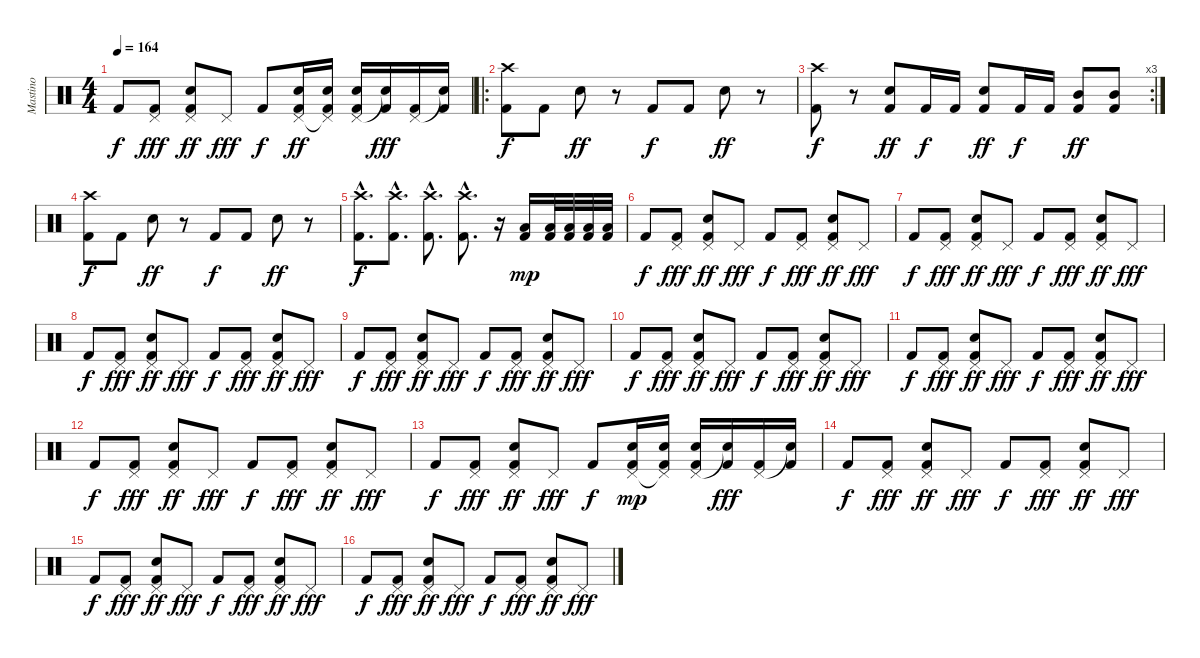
\track ("Mastino" "Mastino") {instrument percussion}
\staff {score}
\articulation defaults
\ts (4 4)
\tempo 164
\clef neutral
\ks c "Kick (hit) 2".8{dy f}
("Pedal Hi-Hat (hit)" "Kick (hit) 2").8{dy fff} ("Pedal Hi-Hat (hit)" "Electric Snare (hit)" "Kick (hit) 2").8{dy ff} "Pedal Hi-Hat (hit)".8{dy fff} "Kick (hit) 2".8{dy f} ("Pedal Hi-Hat (hit)" "Electric Snare (hit)" "Kick (hit) 2").16{dy ff} ("Pedal Hi-Hat (hit)"{t} "Electric Snare (hit)" "Kick (hit) 2").16 ("Pedal Hi-Hat (hit)" "Electric Snare (hit)" "Kick (hit) 2").16 ("Snare (hit)"{t} "Kick (hit) 2").16{dy fff} ("Pedal Hi-Hat (hit)" "Kick (hit) 2").16 ("Snare (hit)"{t} "Kick (hit) 2").16 |
\ro
("Crash high (hit)" "Kick (hit) 2").8{dy f} "Kick (hit) 2".8 "Electric Snare (hit)".8{dy ff} r.8 "Kick (hit) 2".8{dy f} "Kick (hit) 2".8 "Electric Snare (hit)".8{dy ff} r.8 |
\rc 3
("Crash high (hit)" "Kick (hit) 2").8{dy f} r.8 ("Electric Snare (hit)" "Kick (hit) 2").8{dy ff} "Kick (hit) 2".16{dy f} "Kick (hit) 2".16 ("Electric Snare (hit)" "Kick (hit) 2").8{dy ff} "Kick (hit) 2".16{dy f} "Kick (hit) 2".16 ("Mid Tom (hit)" "Kick (hit) 2").8{dy ff} ("Mid Tom (hit)" "Kick (hit) 2").8 |
("Crash high (hit)" "Kick (hit) 2").8{dy f} "Kick (hit) 2".8 "Electric Snare (hit)".8{dy ff} r.8 "Kick (hit) 2".8{dy f} "Kick (hit) 2".8 "Electric Snare (hit)".8{dy ff} r.8 |
("Crash high (hit)"{hac} "Kick (hit) 2"{hac}).8{d dy f} ("Crash high (hit)"{hac} "Kick (hit) 2"{hac}).8{d} ("Crash high (hit)"{hac} "Kick (hit) 2"{hac}).8{d} ("Crash high (hit)"{hac} "Kick (hit) 2"{hac}).8{d} r.16 ("Low Tom (hit)" "Kick (hit) 2").16{dy mp} ("Low Tom (hit)" "Kick (hit) 2").32 ("Low Tom (hit)" "Kick (hit) 2").32 ("Low Tom (hit)" "Kick (hit) 2").32 ("Low Tom (hit)" "Kick (hit) 2").32 |
"Kick (hit) 2".8{dy f} ("Pedal Hi-Hat (hit)" "Kick (hit) 2").8{dy fff} ("Pedal Hi-Hat (hit)" "Electric Snare (hit)" "Kick (hit) 2").8{dy ff} "Pedal Hi-Hat (hit)".8{dy fff} "Kick (hit) 2".8{dy f} ("Pedal Hi-Hat (hit)" "Kick (hit) 2").8{dy fff} ("Pedal Hi-Hat (hit)" "Electric Snare (hit)" "Kick (hit) 2").8{dy ff} "Pedal Hi-Hat (hit)".8{dy fff} |
"Kick (hit) 2".8{dy f} ("Pedal Hi-Hat (hit)" "Kick (hit) 2").8{dy fff} ("Pedal Hi-Hat (hit)" "Electric Snare (hit)" "Kick (hit) 2").8{dy ff} "Pedal Hi-Hat (hit)".8{dy fff} "Kick (hit) 2".8{dy f} ("Pedal Hi-Hat (hit)" "Kick (hit) 2").8{dy fff} ("Pedal Hi-Hat (hit)" "Electric Snare (hit)" "Kick (hit) 2").8{dy ff} "Pedal Hi-Hat (hit)".8{dy fff} |
"Kick (hit) 2".8{dy f} ("Pedal Hi-Hat (hit)" "Kick (hit) 2").8{dy fff} ("Pedal Hi-Hat (hit)" "Electric Snare (hit)" "Kick (hit) 2").8{dy ff} "Pedal Hi-Hat (hit)".8{dy fff} "Kick (hit) 2".8{dy f} ("Pedal Hi-Hat (hit)" "Kick (hit) 2").8{dy fff} ("Pedal Hi-Hat (hit)" "Electric Snare (hit)" "Kick (hit) 2").8{dy ff} "Pedal Hi-Hat (hit)".8{dy fff} |
"Kick (hit) 2".8{dy f} ("Pedal Hi-Hat (hit)" "Kick (hit) 2").8{dy fff} ("Pedal Hi-Hat (hit)" "Electric Snare (hit)" "Kick (hit) 2").8{dy ff} "Pedal Hi-Hat (hit)".8{dy fff} "Kick (hit) 2".8{dy f} ("Pedal Hi-Hat (hit)" "Kick (hit) 2").8{dy fff} ("Pedal Hi-Hat (hit)" "Electric Snare (hit)" "Kick (hit) 2").8{dy ff} "Pedal Hi-Hat (hit)".8{dy fff} |
"Kick (hit) 2".8{dy f} ("Pedal Hi-Hat (hit)" "Kick (hit) 2").8{dy fff} ("Pedal Hi-Hat (hit)" "Electric Snare (hit)" "Kick (hit) 2").8{dy ff} "Pedal Hi-Hat (hit)".8{dy fff} "Kick (hit) 2".8{dy f} ("Pedal Hi-Hat (hit)" "Kick (hit) 2").8{dy fff} ("Pedal Hi-Hat (hit)" "Electric Snare (hit)" "Kick (hit) 2").8{dy ff} "Pedal Hi-Hat (hit)".8{dy fff} |
"Kick (hit) 2".8{dy f} ("Pedal Hi-Hat (hit)" "Kick (hit) 2").8{dy fff} ("Pedal Hi-Hat (hit)" "Electric Snare (hit)" "Kick (hit) 2").8{dy ff} "Pedal Hi-Hat (hit)".8{dy fff} "Kick (hit) 2".8{dy f} ("Pedal Hi-Hat (hit)" "Kick (hit) 2").8{dy fff} ("Pedal Hi-Hat (hit)" "Electric Snare (hit)" "Kick (hit) 2").8{dy ff} "Pedal Hi-Hat (hit)".8{dy fff} |
"Kick (hit) 2".8{dy f} ("Pedal Hi-Hat (hit)" "Kick (hit) 2").8{dy fff} ("Pedal Hi-Hat (hit)" "Electric Snare (hit)" "Kick (hit) 2").8{dy ff} "Pedal Hi-Hat (hit)".8{dy fff} "Kick (hit) 2".8{dy f} ("Pedal Hi-Hat (hit)" "Kick (hit) 2").8{dy fff} ("Pedal Hi-Hat (hit)" "Electric Snare (hit)" "Kick (hit) 2").8{dy ff} "Pedal Hi-Hat (hit)".8{dy fff} |
"Kick (hit) 2".8{dy f} ("Pedal Hi-Hat (hit)" "Kick (hit) 2").8{dy fff} ("Pedal Hi-Hat (hit)" "Electric Snare (hit)" "Kick (hit) 2").8{dy ff} "Pedal Hi-Hat (hit)".8{dy fff} "Kick (hit) 2".8{dy f} ("Pedal Hi-Hat (hit)" "Electric Snare (hit)" "Kick (hit) 2").16{dy mp} ("Pedal Hi-Hat (hit)"{t} "Electric Snare (hit)" "Kick (hit) 2").16 ("Pedal Hi-Hat (hit)" "Electric Snare (hit)" "Kick (hit) 2").16 ("Snare (hit)"{t} "Kick (hit) 2").16{dy fff} ("Pedal Hi-Hat (hit)" "Kick (hit) 2").16 ("Snare (hit)"{t} "Kick (hit) 2").16 |
"Kick (hit) 2".8{dy f} ("Pedal Hi-Hat (hit)" "Kick (hit) 2").8{dy fff} ("Pedal Hi-Hat (hit)" "Electric Snare (hit)" "Kick (hit) 2").8{dy ff} "Pedal Hi-Hat (hit)".8{dy fff} "Kick (hit) 2".8{dy f} ("Pedal Hi-Hat (hit)" "Kick (hit) 2").8{dy fff} ("Pedal Hi-Hat (hit)" "Electric Snare (hit)" "Kick (hit) 2").8{dy ff} "Pedal Hi-Hat (hit)".8{dy fff} |
"Kick (hit) 2".8{dy f} ("Pedal Hi-Hat (hit)" "Kick (hit) 2").8{dy fff} ("Pedal Hi-Hat (hit)" "Electric Snare (hit)" "Kick (hit) 2").8{dy ff} "Pedal Hi-Hat (hit)".8{dy fff} "Kick (hit) 2".8{dy f} ("Pedal Hi-Hat (hit)" "Kick (hit) 2").8{dy fff} ("Pedal Hi-Hat (hit)" "Electric Snare (hit)" "Kick (hit) 2").8{dy ff} "Pedal Hi-Hat (hit)".8{dy fff} |
"Kick (hit) 2".8{dy f} ("Pedal Hi-Hat (hit)" "Kick (hit) 2").8{dy fff} ("Pedal Hi-Hat (hit)" "Electric Snare (hit)" "Kick (hit) 2").8{dy ff} "Pedal Hi-Hat (hit)".8{dy fff} "Kick (hit) 2".8{dy f} ("Pedal Hi-Hat (hit)" "Kick (hit) 2").8{dy fff} ("Pedal Hi-Hat (hit)" "Electric Snare (hit)" "Kick (hit) 2").8{dy ff} "Pedal Hi-Hat (hit)".8{dy fff}
